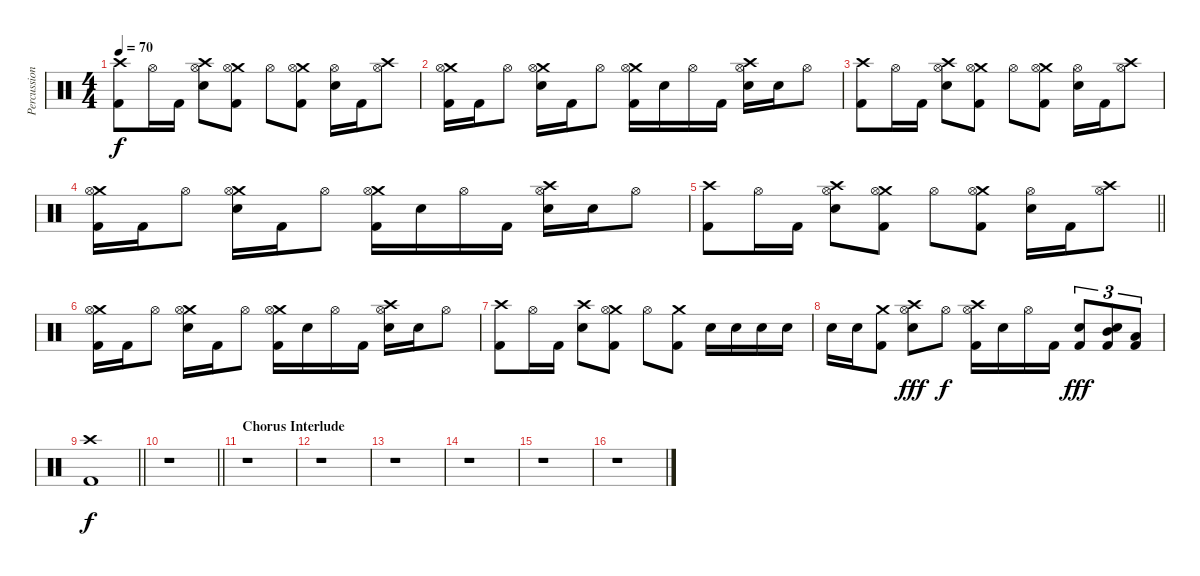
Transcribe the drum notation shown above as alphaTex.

\track ("Percussion" "Percussion") {instrument percussion}
\staff {score}
\articulation defaults
\ts (4 4)
\tempo 70
\clef neutral
\ks c
("Crash high (hit)" "Kick (hit) 2").8{dy f} "Hi-Hat (open)".16 "Kick (hit) 2".16 ("Crash high (hit)" "Hi-Hat (open)" "Snare (hit) 2").8 ("Crash medium (hit)" "Hi-Hat (open)" "Kick (hit) 2").8 "Hi-Hat (open)".8 ("Crash medium (hit)" "Hi-Hat (open)" "Kick (hit) 2").8 ("Hi-Hat (open)" "Snare (hit) 2").16 "Kick (hit) 2".16 ("Crash high (hit)" "Hi-Hat (open)").8 |
("Crash medium (hit)" "Hi-Hat (open)" "Kick (hit) 2").16 "Kick (hit) 2".16 "Hi-Hat (open)".8 ("Crash medium (hit)" "Hi-Hat (open)" "Snare (hit) 2").16 "Kick (hit) 2".16 "Hi-Hat (open)".8 ("Crash medium (hit)" "Hi-Hat (open)" "Kick (hit) 2").16 "Snare (hit) 2".16 "Hi-Hat (open)".16 "Kick (hit) 2".16 ("Crash high (hit)" "Hi-Hat (open)" "Snare (hit) 2").16 "Snare (hit) 2".16 "Hi-Hat (open)".8 |
("Crash high (hit)" "Kick (hit) 2").8 "Hi-Hat (open)".16 "Kick (hit) 2".16 ("Crash high (hit)" "Hi-Hat (open)" "Snare (hit) 2").8 ("Crash medium (hit)" "Hi-Hat (open)" "Kick (hit) 2").8 "Hi-Hat (open)".8 ("Crash medium (hit)" "Hi-Hat (open)" "Kick (hit) 2").8 ("Hi-Hat (open)" "Snare (hit) 2").16 "Kick (hit) 2".16 ("Crash high (hit)" "Hi-Hat (open)").8 |
("Crash medium (hit)" "Hi-Hat (open)" "Kick (hit) 2").16 "Kick (hit) 2".16 "Hi-Hat (open)".8 ("Crash medium (hit)" "Hi-Hat (open)" "Snare (hit) 2").16 "Kick (hit) 2".16 "Hi-Hat (open)".8 ("Crash medium (hit)" "Hi-Hat (open)" "Kick (hit) 2").16 "Snare (hit) 2".16 "Hi-Hat (open)".16 "Kick (hit) 2".16 ("Crash high (hit)" "Hi-Hat (open)" "Snare (hit) 2").16 "Snare (hit) 2".16 "Hi-Hat (open)".8 |
\barLineRight lightlight
("Crash high (hit)" "Kick (hit) 2").8 "Hi-Hat (open)".16 "Kick (hit) 2".16 ("Crash high (hit)" "Hi-Hat (open)" "Snare (hit) 2").8 ("Crash medium (hit)" "Hi-Hat (open)" "Kick (hit) 2").8 "Hi-Hat (open)".8 ("Crash medium (hit)" "Hi-Hat (open)" "Kick (hit) 2").8 ("Hi-Hat (open)" "Snare (hit) 2").16 "Kick (hit) 2".16 ("Crash high (hit)" "Hi-Hat (open)").8 |
("Crash medium (hit)" "Hi-Hat (open)" "Kick (hit) 2").16 "Kick (hit) 2".16 "Hi-Hat (open)".8 ("Crash medium (hit)" "Hi-Hat (open)" "Snare (hit) 2").16 "Kick (hit) 2".16 "Hi-Hat (open)".8 ("Crash medium (hit)" "Hi-Hat (open)" "Kick (hit) 2").16 "Snare (hit) 2".16 "Hi-Hat (open)".16 "Kick (hit) 2".16 ("Crash high (hit)" "Hi-Hat (open)" "Snare (hit) 2").16 "Snare (hit) 2".16 "Hi-Hat (open)".8 |
("Crash high (hit)" "Kick (hit) 2").8 "Hi-Hat (open)".16 "Kick (hit) 2".16 ("Crash high (hit)" "Snare (hit) 2").8 ("Crash medium (hit)" "Hi-Hat (open)" "Kick (hit) 2").8 "Hi-Hat (open)".8 ("Crash medium (hit)" "Kick (hit) 2").8 "Snare (hit) 2".16 "Snare (hit) 2".16 "Snare (hit) 2".16 "Snare (hit) 2".16 |
"Snare (hit) 2".16 "Snare (hit) 2".16 ("Crash medium (hit)" "Kick (hit) 2").8 ("Crash high (hit)" "Hi-Hat (open)" "Snare (hit) 2").8{dy fff} "Hi-Hat (open)".8{dy f} ("Crash high (hit)" "Hi-Hat (open)" "Kick (hit) 2").16 "Snare (hit) 2".16 "Hi-Hat (open)".16 "Kick (hit) 2".16 ("Snare (hit) 2" "Kick (hit) 2").8{tu (3 2) dy fff} ("Mid Tom (hit)" "Snare (hit) 2" "Kick (hit) 2").8{tu (3 2)} ("Low Tom (hit)" "Kick (hit) 2").8{tu (3 2)} |
\barLineRight lightlight
("Crash high (hit)" "Kick (hit) 2").1{dy f} |
\barLineRight lightlight
r.1 |
\section ("" "Chorus Interlude")
r.1 |
r.1 |
r.1 |
r.1 |
r.1 |
r.1
